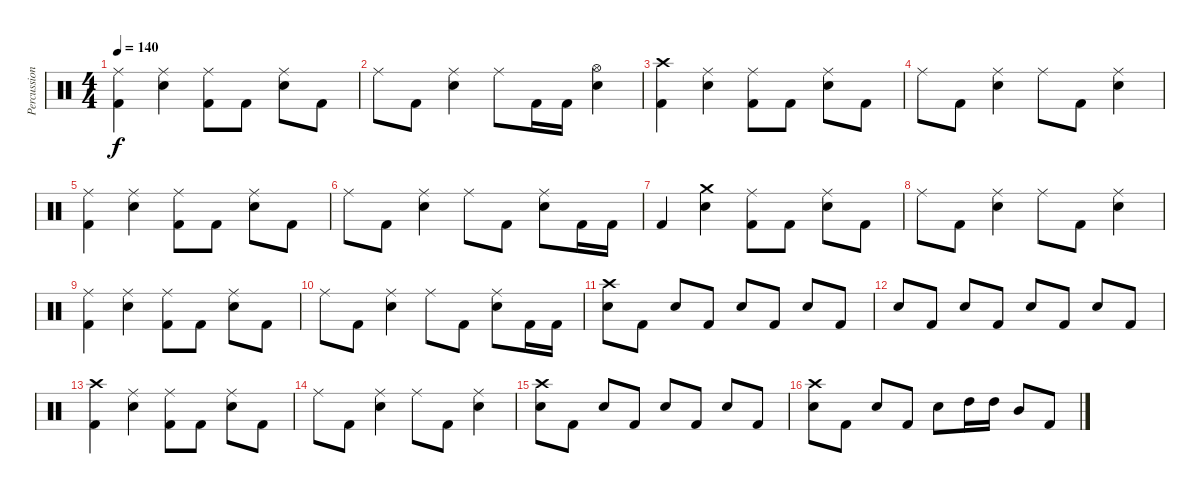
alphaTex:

\track ("Percussion" "Percussion") {instrument percussion}
\staff {score}
\articulation defaults
\ts (4 4)
\tempo 140
\clef neutral
\ks c
("Kick (hit) 2" "Ride (middle)").4{dy f} ("Snare (hit) 2" "Ride (middle)").4 ("Kick (hit) 2" "Ride (middle)").8 "Kick (hit) 2".8 ("Snare (hit) 2" "Ride (middle)").8 "Kick (hit) 2".8 |
"Ride (middle)".8 "Kick (hit) 2".8 ("Snare (hit) 2" "Ride (middle)").4 "Ride (middle)".8 "Kick (hit) 2".16 "Kick (hit) 2".16 ("Snare (hit) 2" "Hi-Hat (open)").4 |
("Kick (hit) 2" "Crash high (hit)").4 ("Snare (hit) 2" "Ride (middle)").4 ("Kick (hit) 2" "Ride (middle)").8 "Kick (hit) 2".8 ("Snare (hit) 2" "Ride (middle)").8 "Kick (hit) 2".8 |
"Ride (middle)".8 "Kick (hit) 2".8 ("Snare (hit) 2" "Ride (middle)").4 "Ride (middle)".8 "Kick (hit) 2".8 ("Snare (hit) 2" "Ride (middle)").4 |
("Kick (hit) 2" "Ride (middle)").4 ("Snare (hit) 2" "Ride (middle)").4 ("Kick (hit) 2" "Ride (middle)").8 "Kick (hit) 2".8 ("Snare (hit) 2" "Ride (middle)").8 "Kick (hit) 2".8 |
"Ride (middle)".8 "Kick (hit) 2".8 ("Snare (hit) 2" "Ride (middle)").4 "Ride (middle)".8 "Kick (hit) 2".8 ("Snare (hit) 2" "Ride (middle)").8 "Kick (hit) 2".16 "Kick (hit) 2".16 |
"Kick (hit) 2".4 ("Snare (hit) 2" "Crash medium (hit)").4 ("Kick (hit) 2" "Ride (middle)").8 "Kick (hit) 2".8 ("Snare (hit) 2" "Ride (middle)").8 "Kick (hit) 2".8 |
"Ride (middle)".8 "Kick (hit) 2".8 ("Snare (hit) 2" "Ride (middle)").4 "Ride (middle)".8 "Kick (hit) 2".8 ("Snare (hit) 2" "Ride (middle)").4 |
("Kick (hit) 2" "Ride (middle)").4 ("Snare (hit) 2" "Ride (middle)").4 ("Kick (hit) 2" "Ride (middle)").8 "Kick (hit) 2".8 ("Snare (hit) 2" "Ride (middle)").8 "Kick (hit) 2".8 |
"Ride (middle)".8 "Kick (hit) 2".8 ("Snare (hit) 2" "Ride (middle)").4 "Ride (middle)".8 "Kick (hit) 2".8 ("Snare (hit) 2" "Ride (middle)").8 "Kick (hit) 2".16 "Kick (hit) 2".16 |
("Snare (hit) 2" "Crash high (hit)").8 "Kick (hit) 2".8 "Snare (hit) 2".8 "Kick (hit) 2".8 "Snare (hit) 2".8 "Kick (hit) 2".8 "Snare (hit) 2".8 "Kick (hit) 2".8 |
"Snare (hit) 2".8 "Kick (hit) 2".8 "Snare (hit) 2".8 "Kick (hit) 2".8 "Snare (hit) 2".8 "Kick (hit) 2".8 "Snare (hit) 2".8 "Kick (hit) 2".8 |
("Kick (hit) 2" "Crash high (hit)").4 ("Snare (hit) 2" "Ride (middle)").4 ("Kick (hit) 2" "Ride (middle)").8 "Kick (hit) 2".8 ("Snare (hit) 2" "Ride (middle)").8 "Kick (hit) 2".8 |
"Ride (middle)".8 "Kick (hit) 2".8 ("Snare (hit) 2" "Ride (middle)").4 "Ride (middle)".8 "Kick (hit) 2".8 ("Snare (hit) 2" "Ride (middle)").4 |
("Snare (hit) 2" "Crash high (hit)").8 "Kick (hit) 2".8 "Snare (hit) 2".8 "Kick (hit) 2".8 "Snare (hit) 2".8 "Kick (hit) 2".8 "Snare (hit) 2".8 "Kick (hit) 2".8 |
("Snare (hit) 2" "Crash high (hit)").8 "Kick (hit) 2".8 "Snare (hit) 2".8 "Kick (hit) 2".8 "Snare (hit) 2".8 "High Tom (hit)".16 "High Tom (hit)".16 "Mid Tom (hit)".8 "Kick (hit) 2".8
